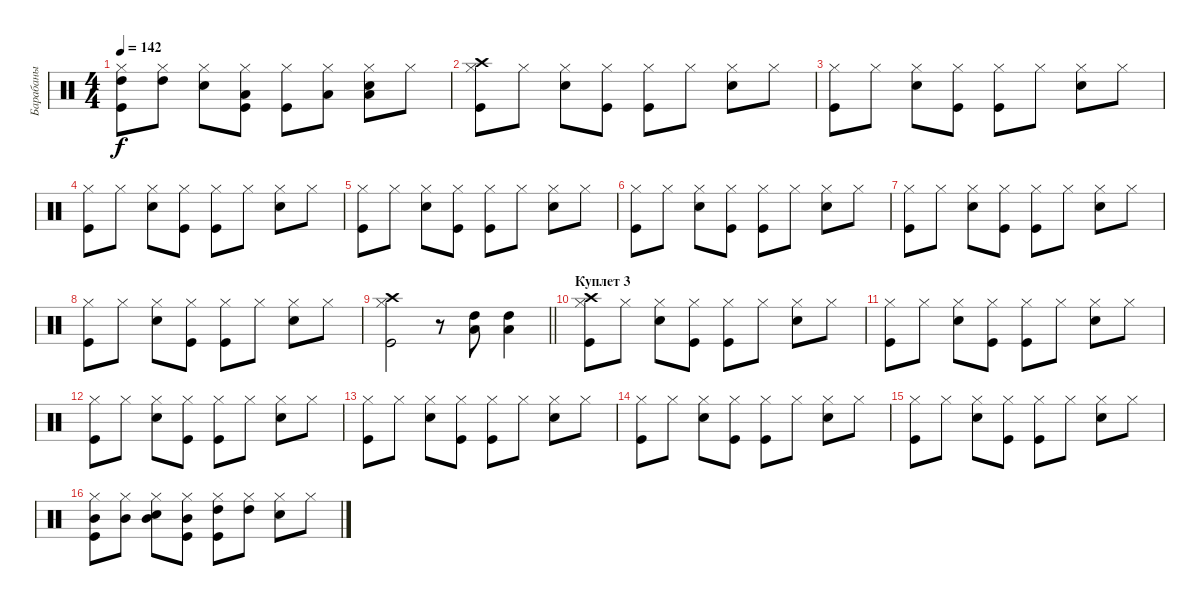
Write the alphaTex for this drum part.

\track ("Барабаны" "Барабаны") {instrument percussion}
\staff {score}
\articulation defaults
\ts (4 4)
\tempo 142
\clef neutral
\ks c
("Kick (hit)" "Hi-Hat (closed)" "High Tom (hit)").8{dy f} ("Hi-Hat (closed)" "High Tom (hit)").8 ("Snare (hit) 2" "Hi-Hat (closed)").8 ("Kick (hit)" "Hi-Hat (closed)" "Low Floor Tom (hit)").8 ("Kick (hit)" "Hi-Hat (closed)").8 ("Hi-Hat (closed)" "Low Floor Tom (hit)").8 ("Snare (hit) 2" "Hi-Hat (closed)" "Low Floor Tom (hit)").8 "Hi-Hat (closed)".8 |
("Kick (hit)" "Hi-Hat (closed)" "Crash high (hit)").8 "Hi-Hat (closed)".8 ("Snare (hit) 2" "Hi-Hat (closed)").8 ("Kick (hit)" "Hi-Hat (closed)").8 ("Kick (hit)" "Hi-Hat (closed)").8 "Hi-Hat (closed)".8 ("Snare (hit) 2" "Hi-Hat (closed)").8 "Hi-Hat (closed)".8 |
("Kick (hit)" "Hi-Hat (closed)").8 "Hi-Hat (closed)".8 ("Snare (hit) 2" "Hi-Hat (closed)").8 ("Kick (hit)" "Hi-Hat (closed)").8 ("Kick (hit)" "Hi-Hat (closed)").8 "Hi-Hat (closed)".8 ("Snare (hit) 2" "Hi-Hat (closed)").8 "Hi-Hat (closed)".8 |
("Kick (hit)" "Hi-Hat (closed)").8 "Hi-Hat (closed)".8 ("Snare (hit) 2" "Hi-Hat (closed)").8 ("Kick (hit)" "Hi-Hat (closed)").8 ("Kick (hit)" "Hi-Hat (closed)").8 "Hi-Hat (closed)".8 ("Snare (hit) 2" "Hi-Hat (closed)").8 "Hi-Hat (closed)".8 |
("Kick (hit)" "Hi-Hat (closed)").8 "Hi-Hat (closed)".8 ("Snare (hit) 2" "Hi-Hat (closed)").8 ("Kick (hit)" "Hi-Hat (closed)").8 ("Kick (hit)" "Hi-Hat (closed)").8 "Hi-Hat (closed)".8 ("Snare (hit) 2" "Hi-Hat (closed)").8 "Hi-Hat (closed)".8 |
("Kick (hit)" "Hi-Hat (closed)").8 "Hi-Hat (closed)".8 ("Snare (hit) 2" "Hi-Hat (closed)").8 ("Kick (hit)" "Hi-Hat (closed)").8 ("Kick (hit)" "Hi-Hat (closed)").8 "Hi-Hat (closed)".8 ("Snare (hit) 2" "Hi-Hat (closed)").8 "Hi-Hat (closed)".8 |
("Kick (hit)" "Hi-Hat (closed)").8 "Hi-Hat (closed)".8 ("Snare (hit) 2" "Hi-Hat (closed)").8 ("Kick (hit)" "Hi-Hat (closed)").8 ("Kick (hit)" "Hi-Hat (closed)").8 "Hi-Hat (closed)".8 ("Snare (hit) 2" "Hi-Hat (closed)").8 "Hi-Hat (closed)".8 |
("Kick (hit)" "Hi-Hat (closed)").8 "Hi-Hat (closed)".8 ("Snare (hit) 2" "Hi-Hat (closed)").8 ("Kick (hit)" "Hi-Hat (closed)").8 ("Kick (hit)" "Hi-Hat (closed)").8 "Hi-Hat (closed)".8 ("Snare (hit) 2" "Hi-Hat (closed)").8 "Hi-Hat (closed)".8 |
\barLineRight lightlight
("Kick (hit)" "Hi-Hat (closed)" "Crash high (hit)").2 r.8 ("Low Floor Tom (hit)" "High Tom (hit)").8 ("Low Floor Tom (hit)" "High Tom (hit)").4 |
\section ("" "Куплет 3")
("Kick (hit)" "Hi-Hat (closed)" "Crash high (hit)").8 "Hi-Hat (closed)".8 ("Snare (hit) 2" "Hi-Hat (closed)").8 ("Kick (hit)" "Hi-Hat (closed)").8 ("Kick (hit)" "Hi-Hat (closed)").8 "Hi-Hat (closed)".8 ("Snare (hit) 2" "Hi-Hat (closed)").8 "Hi-Hat (closed)".8 |
("Kick (hit)" "Hi-Hat (closed)").8 "Hi-Hat (closed)".8 ("Snare (hit) 2" "Hi-Hat (closed)").8 ("Kick (hit)" "Hi-Hat (closed)").8 ("Kick (hit)" "Hi-Hat (closed)").8 "Hi-Hat (closed)".8 ("Snare (hit) 2" "Hi-Hat (closed)").8 "Hi-Hat (closed)".8 |
("Kick (hit)" "Hi-Hat (closed)").8 "Hi-Hat (closed)".8 ("Snare (hit) 2" "Hi-Hat (closed)").8 ("Kick (hit)" "Hi-Hat (closed)").8 ("Kick (hit)" "Hi-Hat (closed)").8 "Hi-Hat (closed)".8 ("Snare (hit) 2" "Hi-Hat (closed)").8 "Hi-Hat (closed)".8 |
("Kick (hit)" "Hi-Hat (closed)").8 "Hi-Hat (closed)".8 ("Snare (hit) 2" "Hi-Hat (closed)").8 ("Kick (hit)" "Hi-Hat (closed)").8 ("Kick (hit)" "Hi-Hat (closed)").8 "Hi-Hat (closed)".8 ("Snare (hit) 2" "Hi-Hat (closed)").8 "Hi-Hat (closed)".8 |
("Kick (hit)" "Hi-Hat (closed)").8 "Hi-Hat (closed)".8 ("Snare (hit) 2" "Hi-Hat (closed)").8 ("Kick (hit)" "Hi-Hat (closed)").8 ("Kick (hit)" "Hi-Hat (closed)").8 "Hi-Hat (closed)".8 ("Snare (hit) 2" "Hi-Hat (closed)").8 "Hi-Hat (closed)".8 |
("Kick (hit)" "Hi-Hat (closed)").8 "Hi-Hat (closed)".8 ("Snare (hit) 2" "Hi-Hat (closed)").8 ("Kick (hit)" "Hi-Hat (closed)").8 ("Kick (hit)" "Hi-Hat (closed)").8 "Hi-Hat (closed)".8 ("Snare (hit) 2" "Hi-Hat (closed)").8 "Hi-Hat (closed)".8 |
("Kick (hit)" "Hi-Hat (closed)" "Mid Tom (hit)").8 ("Hi-Hat (closed)" "Mid Tom (hit)").8 ("Snare (hit) 2" "Hi-Hat (closed)" "Mid Tom (hit)").8 ("Kick (hit)" "Hi-Hat (closed)" "Mid Tom (hit)").8 ("Kick (hit)" "Hi-Hat (closed)" "High Tom (hit)").8 ("Hi-Hat (closed)" "High Tom (hit)").8 ("Snare (hit) 2" "Hi-Hat (closed)").8 "Hi-Hat (closed)".8
